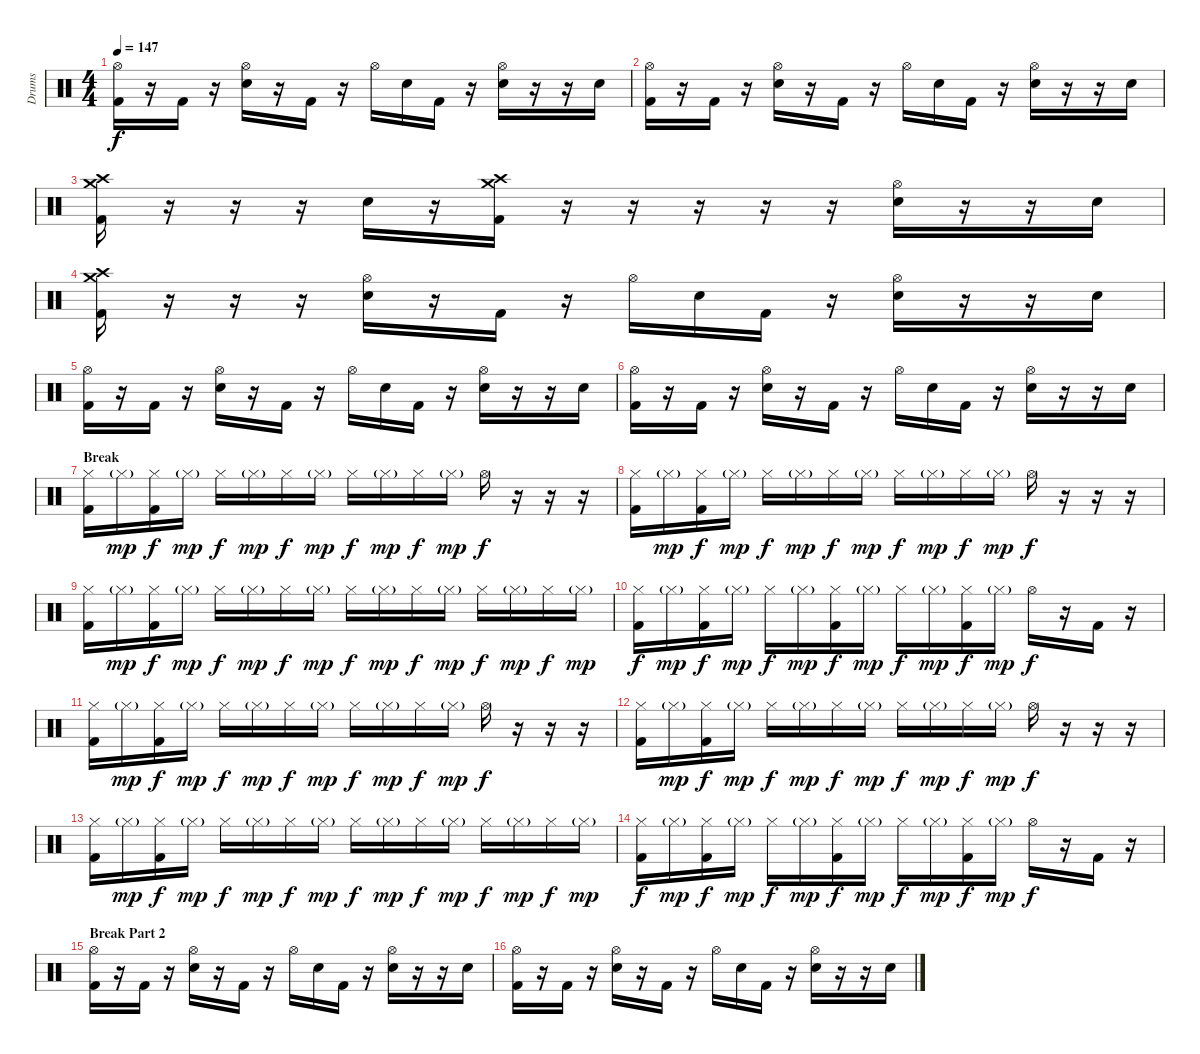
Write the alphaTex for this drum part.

\track ("Drums" "Drums") {instrument percussion}
\staff {score}
\articulation defaults
\ts (4 4)
\tempo 147
\clef neutral
\ks c
("Hi-Hat (open)" "Kick (hit) 2").16{dy f} r.16 "Kick (hit) 2".16 r.16 ("Hi-Hat (open)" "Snare (hit) 2").16 r.16 "Kick (hit) 2".16 r.16 "Hi-Hat (open)".16 "Snare (hit) 2".16 "Kick (hit) 2".16 r.16 ("Hi-Hat (open)" "Snare (hit) 2").16 r.16 r.16 "Snare (hit) 2".16 |
("Hi-Hat (open)" "Kick (hit) 2").16 r.16 "Kick (hit) 2".16 r.16 ("Hi-Hat (open)" "Snare (hit) 2").16 r.16 "Kick (hit) 2".16 r.16 "Hi-Hat (open)".16 "Snare (hit) 2".16 "Kick (hit) 2".16 r.16 ("Hi-Hat (open)" "Snare (hit) 2").16 r.16 r.16 "Snare (hit) 2".16 |
("Crash high (hit)" "Crash medium (hit)" "Kick (hit) 2").16 r.16 r.16 r.16 "Snare (hit) 2".16 r.16 ("Crash high (hit)" "Crash medium (hit)" "Kick (hit) 2").16 r.16 r.16 r.16 r.16 r.16 ("Hi-Hat (open)" "Snare (hit) 2").16 r.16 r.16 "Snare (hit) 2".16 |
("Crash high (hit)" "Crash medium (hit)" "Kick (hit) 2").16 r.16 r.16 r.16 ("Hi-Hat (open)" "Snare (hit) 2").16 r.16 "Kick (hit) 2".16 r.16 "Hi-Hat (open)".16 "Snare (hit) 2".16 "Kick (hit) 2".16 r.16 ("Hi-Hat (open)" "Snare (hit) 2").16 r.16 r.16 "Snare (hit) 2".16 |
("Hi-Hat (open)" "Kick (hit) 2").16 r.16 "Kick (hit) 2".16 r.16 ("Hi-Hat (open)" "Snare (hit) 2").16 r.16 "Kick (hit) 2".16 r.16 "Hi-Hat (open)".16 "Snare (hit) 2".16 "Kick (hit) 2".16 r.16 ("Hi-Hat (open)" "Snare (hit) 2").16 r.16 r.16 "Snare (hit) 2".16 |
("Hi-Hat (open)" "Kick (hit) 2").16 r.16 "Kick (hit) 2".16 r.16 ("Hi-Hat (open)" "Snare (hit) 2").16 r.16 "Kick (hit) 2".16 r.16 "Hi-Hat (open)".16 "Snare (hit) 2".16 "Kick (hit) 2".16 r.16 ("Hi-Hat (open)" "Snare (hit) 2").16 r.16 r.16 "Snare (hit) 2".16 |
\section ("" "Break")
("Hi-Hat (closed)" "Kick (hit) 2").16 "Hi-Hat (closed)"{g}.16{dy mp} ("Hi-Hat (closed)" "Kick (hit) 2").16{dy f} "Hi-Hat (closed)"{g}.16{dy mp} "Hi-Hat (closed)".16{dy f} "Hi-Hat (closed)"{g}.16{dy mp} "Hi-Hat (closed)".16{dy f} "Hi-Hat (closed)"{g}.16{dy mp} "Hi-Hat (closed)".16{dy f} "Hi-Hat (closed)"{g}.16{dy mp} "Hi-Hat (closed)".16{dy f} "Hi-Hat (closed)"{g}.16{dy mp} "Hi-Hat (open)".16{dy f} r.16 r.16 r.16 |
("Hi-Hat (closed)" "Kick (hit) 2").16 "Hi-Hat (closed)"{g}.16{dy mp} ("Hi-Hat (closed)" "Kick (hit) 2").16{dy f} "Hi-Hat (closed)"{g}.16{dy mp} "Hi-Hat (closed)".16{dy f} "Hi-Hat (closed)"{g}.16{dy mp} "Hi-Hat (closed)".16{dy f} "Hi-Hat (closed)"{g}.16{dy mp} "Hi-Hat (closed)".16{dy f} "Hi-Hat (closed)"{g}.16{dy mp} "Hi-Hat (closed)".16{dy f} "Hi-Hat (closed)"{g}.16{dy mp} "Hi-Hat (open)".16{dy f} r.16 r.16 r.16 |
("Hi-Hat (closed)" "Kick (hit) 2").16 "Hi-Hat (closed)"{g}.16{dy mp} ("Hi-Hat (closed)" "Kick (hit) 2").16{dy f} "Hi-Hat (closed)"{g}.16{dy mp} "Hi-Hat (closed)".16{dy f} "Hi-Hat (closed)"{g}.16{dy mp} "Hi-Hat (closed)".16{dy f} "Hi-Hat (closed)"{g}.16{dy mp} "Hi-Hat (closed)".16{dy f} "Hi-Hat (closed)"{g}.16{dy mp} "Hi-Hat (closed)".16{dy f} "Hi-Hat (closed)"{g}.16{dy mp} "Hi-Hat (closed)".16{dy f} "Hi-Hat (closed)"{g}.16{dy mp} "Hi-Hat (closed)".16{dy f} "Hi-Hat (closed)"{g}.16{dy mp} |
("Hi-Hat (closed)" "Kick (hit) 2").16{dy f} "Hi-Hat (closed)"{g}.16{dy mp} ("Hi-Hat (closed)" "Kick (hit) 2").16{dy f} "Hi-Hat (closed)"{g}.16{dy mp} "Hi-Hat (closed)".16{dy f} "Hi-Hat (closed)"{g}.16{dy mp} ("Hi-Hat (closed)" "Kick (hit) 2").16{dy f} "Hi-Hat (closed)"{g}.16{dy mp} "Hi-Hat (closed)".16{dy f} "Hi-Hat (closed)"{g}.16{dy mp} ("Hi-Hat (closed)" "Kick (hit) 2").16{dy f} "Hi-Hat (closed)"{g}.16{dy mp} "Hi-Hat (open)".16{dy f} r.16 "Kick (hit) 2".16 r.16 |
("Hi-Hat (closed)" "Kick (hit) 2").16 "Hi-Hat (closed)"{g}.16{dy mp} ("Hi-Hat (closed)" "Kick (hit) 2").16{dy f} "Hi-Hat (closed)"{g}.16{dy mp} "Hi-Hat (closed)".16{dy f} "Hi-Hat (closed)"{g}.16{dy mp} "Hi-Hat (closed)".16{dy f} "Hi-Hat (closed)"{g}.16{dy mp} "Hi-Hat (closed)".16{dy f} "Hi-Hat (closed)"{g}.16{dy mp} "Hi-Hat (closed)".16{dy f} "Hi-Hat (closed)"{g}.16{dy mp} "Hi-Hat (open)".16{dy f} r.16 r.16 r.16 |
("Hi-Hat (closed)" "Kick (hit) 2").16 "Hi-Hat (closed)"{g}.16{dy mp} ("Hi-Hat (closed)" "Kick (hit) 2").16{dy f} "Hi-Hat (closed)"{g}.16{dy mp} "Hi-Hat (closed)".16{dy f} "Hi-Hat (closed)"{g}.16{dy mp} "Hi-Hat (closed)".16{dy f} "Hi-Hat (closed)"{g}.16{dy mp} "Hi-Hat (closed)".16{dy f} "Hi-Hat (closed)"{g}.16{dy mp} "Hi-Hat (closed)".16{dy f} "Hi-Hat (closed)"{g}.16{dy mp} "Hi-Hat (open)".16{dy f} r.16 r.16 r.16 |
("Hi-Hat (closed)" "Kick (hit) 2").16 "Hi-Hat (closed)"{g}.16{dy mp} ("Hi-Hat (closed)" "Kick (hit) 2").16{dy f} "Hi-Hat (closed)"{g}.16{dy mp} "Hi-Hat (closed)".16{dy f} "Hi-Hat (closed)"{g}.16{dy mp} "Hi-Hat (closed)".16{dy f} "Hi-Hat (closed)"{g}.16{dy mp} "Hi-Hat (closed)".16{dy f} "Hi-Hat (closed)"{g}.16{dy mp} "Hi-Hat (closed)".16{dy f} "Hi-Hat (closed)"{g}.16{dy mp} "Hi-Hat (closed)".16{dy f} "Hi-Hat (closed)"{g}.16{dy mp} "Hi-Hat (closed)".16{dy f} "Hi-Hat (closed)"{g}.16{dy mp} |
("Hi-Hat (closed)" "Kick (hit) 2").16{dy f} "Hi-Hat (closed)"{g}.16{dy mp} ("Hi-Hat (closed)" "Kick (hit) 2").16{dy f} "Hi-Hat (closed)"{g}.16{dy mp} "Hi-Hat (closed)".16{dy f} "Hi-Hat (closed)"{g}.16{dy mp} ("Hi-Hat (closed)" "Kick (hit) 2").16{dy f} "Hi-Hat (closed)"{g}.16{dy mp} "Hi-Hat (closed)".16{dy f} "Hi-Hat (closed)"{g}.16{dy mp} ("Hi-Hat (closed)" "Kick (hit) 2").16{dy f} "Hi-Hat (closed)"{g}.16{dy mp} "Hi-Hat (open)".16{dy f} r.16 "Kick (hit) 2".16 r.16 |
\section ("" "Break Part 2")
("Hi-Hat (open)" "Kick (hit) 2").16 r.16 "Kick (hit) 2".16 r.16 ("Hi-Hat (open)" "Snare (hit) 2").16 r.16 "Kick (hit) 2".16 r.16 "Hi-Hat (open)".16 "Snare (hit) 2".16 "Kick (hit) 2".16 r.16 ("Hi-Hat (open)" "Snare (hit) 2").16 r.16 r.16 "Snare (hit) 2".16 |
("Hi-Hat (open)" "Kick (hit) 2").16 r.16 "Kick (hit) 2".16 r.16 ("Hi-Hat (open)" "Snare (hit) 2").16 r.16 "Kick (hit) 2".16 r.16 "Hi-Hat (open)".16 "Snare (hit) 2".16 "Kick (hit) 2".16 r.16 ("Hi-Hat (open)" "Snare (hit) 2").16 r.16 r.16 "Snare (hit) 2".16
